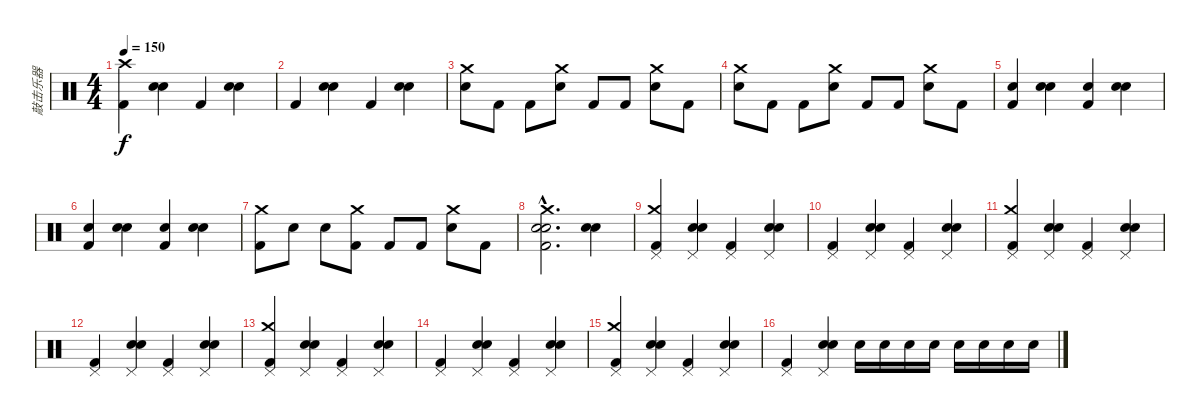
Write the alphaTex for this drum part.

\track ("敲击乐器" "敲击乐器") {instrument percussion}
\staff {score}
\articulation defaults
\ts (4 4)
\tempo 150
\clef neutral
\ks c
("Kick (hit) 2" "Crash high (hit)").4{dy f} ("Snare (hit) 2" "Electric Snare (hit)").4 "Kick (hit) 2".4 ("Snare (hit) 2" "Electric Snare (hit)").4 |
"Kick (hit) 2".4 ("Snare (hit) 2" "Electric Snare (hit)").4 "Kick (hit) 2".4 ("Snare (hit) 2" "Electric Snare (hit)").4 |
("Snare (hit) 2" "Crash medium (hit)").8 "Kick (hit) 2".8 "Kick (hit) 2".8 ("Snare (hit) 2" "Crash medium (hit)").8 "Kick (hit) 2".8 "Kick (hit) 2".8 ("Snare (hit) 2" "Crash medium (hit)").8 "Kick (hit) 2".8 |
("Snare (hit) 2" "Crash medium (hit)").8 "Kick (hit) 2".8 "Kick (hit) 2".8 ("Snare (hit) 2" "Crash medium (hit)").8 "Kick (hit) 2".8 "Kick (hit) 2".8 ("Snare (hit) 2" "Crash medium (hit)").8 "Kick (hit) 2".8 |
("Kick (hit) 2" "Electric Snare (hit)").4 ("Snare (hit) 2" "Electric Snare (hit)").4 ("Kick (hit) 2" "Electric Snare (hit)").4 ("Snare (hit) 2" "Electric Snare (hit)").4 |
("Kick (hit) 2" "Electric Snare (hit)").4 ("Snare (hit) 2" "Electric Snare (hit)").4 ("Kick (hit) 2" "Electric Snare (hit)").4 ("Snare (hit) 2" "Electric Snare (hit)").4 |
("Kick (hit) 2" "Crash medium (hit)").8 "Snare (hit) 2".8 "Snare (hit) 2".8 ("Kick (hit) 2" "Crash medium (hit)").8 "Kick (hit) 2".8 "Kick (hit) 2".8 ("Snare (hit) 2" "Crash medium (hit)").8 "Kick (hit) 2".8 |
("Kick (hit) 2"{hac} "Crash medium (hit)"{hac} "Electric Snare (hit)"{hac} "Snare (hit) 2"{hac}).2{d} ("Snare (hit) 2" "Electric Snare (hit)").4 |
("Kick (hit) 2" "Pedal Hi-Hat (hit)" "Crash medium (hit)").4 ("Snare (hit) 2" "Electric Snare (hit)" "Pedal Hi-Hat (hit)").4 ("Kick (hit) 2" "Pedal Hi-Hat (hit)").4 ("Snare (hit) 2" "Electric Snare (hit)" "Pedal Hi-Hat (hit)").4 |
("Kick (hit) 2" "Pedal Hi-Hat (hit)").4 ("Snare (hit) 2" "Electric Snare (hit)" "Pedal Hi-Hat (hit)").4 ("Kick (hit) 2" "Pedal Hi-Hat (hit)").4 ("Snare (hit) 2" "Electric Snare (hit)" "Pedal Hi-Hat (hit)").4 |
("Kick (hit) 2" "Pedal Hi-Hat (hit)" "Crash medium (hit)").4 ("Snare (hit) 2" "Electric Snare (hit)" "Pedal Hi-Hat (hit)").4 ("Kick (hit) 2" "Pedal Hi-Hat (hit)").4 ("Snare (hit) 2" "Electric Snare (hit)" "Pedal Hi-Hat (hit)").4 |
("Kick (hit) 2" "Pedal Hi-Hat (hit)").4 ("Snare (hit) 2" "Electric Snare (hit)" "Pedal Hi-Hat (hit)").4 ("Kick (hit) 2" "Pedal Hi-Hat (hit)").4 ("Snare (hit) 2" "Electric Snare (hit)" "Pedal Hi-Hat (hit)").4 |
("Kick (hit) 2" "Pedal Hi-Hat (hit)" "Crash medium (hit)").4 ("Snare (hit) 2" "Electric Snare (hit)" "Pedal Hi-Hat (hit)").4 ("Kick (hit) 2" "Pedal Hi-Hat (hit)").4 ("Snare (hit) 2" "Electric Snare (hit)" "Pedal Hi-Hat (hit)").4 |
("Kick (hit) 2" "Pedal Hi-Hat (hit)").4 ("Snare (hit) 2" "Electric Snare (hit)" "Pedal Hi-Hat (hit)").4 ("Kick (hit) 2" "Pedal Hi-Hat (hit)").4 ("Snare (hit) 2" "Electric Snare (hit)" "Pedal Hi-Hat (hit)").4 |
("Kick (hit) 2" "Pedal Hi-Hat (hit)" "Crash medium (hit)").4 ("Snare (hit) 2" "Electric Snare (hit)" "Pedal Hi-Hat (hit)").4 ("Kick (hit) 2" "Pedal Hi-Hat (hit)").4 ("Snare (hit) 2" "Electric Snare (hit)" "Pedal Hi-Hat (hit)").4 |
("Kick (hit) 2" "Pedal Hi-Hat (hit)").4 ("Snare (hit) 2" "Electric Snare (hit)" "Pedal Hi-Hat (hit)").4 "Electric Snare (hit)".16 "Electric Snare (hit)".16 "Electric Snare (hit)".16 "Electric Snare (hit)".16 "Electric Snare (hit)".16 "Electric Snare (hit)".16 "Electric Snare (hit)".16 "Electric Snare (hit)".16
